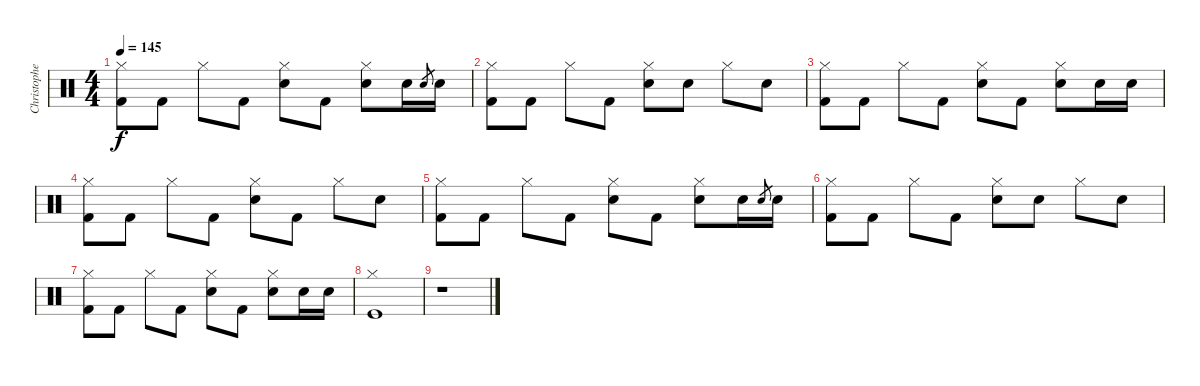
\track ("Christopher - Drums" "Christophe") {instrument percussion}
\staff {score}
\articulation defaults
\ts (4 4)
\tempo 145
\clef neutral
\ks c
("Hi-Hat (closed)" "Kick (hit) 2").8{dy f} "Kick (hit) 2".8 "Hi-Hat (closed)".8 "Kick (hit) 2".8 ("Hi-Hat (closed)" "Electric Snare (hit)").8 "Kick (hit) 2".8 ("Hi-Hat (closed)" "Electric Snare (hit)").8 "Electric Snare (hit)".16 "Electric Snare (hit)".8{gr} "Electric Snare (hit)".16 |
("Hi-Hat (closed)" "Kick (hit) 2").8 "Kick (hit) 2".8 "Hi-Hat (closed)".8 "Kick (hit) 2".8 ("Hi-Hat (closed)" "Electric Snare (hit)").8 "Electric Snare (hit)".8 "Hi-Hat (closed)".8 "Electric Snare (hit)".8 |
("Hi-Hat (closed)" "Kick (hit) 2").8 "Kick (hit) 2".8 "Hi-Hat (closed)".8 "Kick (hit) 2".8 ("Hi-Hat (closed)" "Electric Snare (hit)").8 "Kick (hit) 2".8 ("Hi-Hat (closed)" "Electric Snare (hit)").8 "Electric Snare (hit)".16 "Electric Snare (hit)".16 |
("Hi-Hat (closed)" "Kick (hit) 2").8 "Kick (hit) 2".8 "Hi-Hat (closed)".8 "Kick (hit) 2".8 ("Hi-Hat (closed)" "Electric Snare (hit)").8 "Kick (hit) 2".8 "Hi-Hat (closed)".8 "Electric Snare (hit)".8 |
("Hi-Hat (closed)" "Kick (hit) 2").8 "Kick (hit) 2".8 "Hi-Hat (closed)".8 "Kick (hit) 2".8 ("Hi-Hat (closed)" "Electric Snare (hit)").8 "Kick (hit) 2".8 ("Hi-Hat (closed)" "Electric Snare (hit)").8 "Electric Snare (hit)".16 "Electric Snare (hit)".8{gr} "Electric Snare (hit)".16 |
("Hi-Hat (closed)" "Kick (hit) 2").8 "Kick (hit) 2".8 "Hi-Hat (closed)".8 "Kick (hit) 2".8 ("Hi-Hat (closed)" "Electric Snare (hit)").8 "Electric Snare (hit)".8 "Hi-Hat (closed)".8 "Electric Snare (hit)".8 |
("Hi-Hat (closed)" "Kick (hit) 2").8 "Kick (hit) 2".8 "Hi-Hat (closed)".8 "Kick (hit) 2".8 ("Hi-Hat (closed)" "Electric Snare (hit)").8 "Kick (hit) 2".8 ("Hi-Hat (closed)" "Electric Snare (hit)").8 "Electric Snare (hit)".16 "Electric Snare (hit)".16 |
("Hi-Hat (closed)" "Kick (hit)").1 |
r.1
